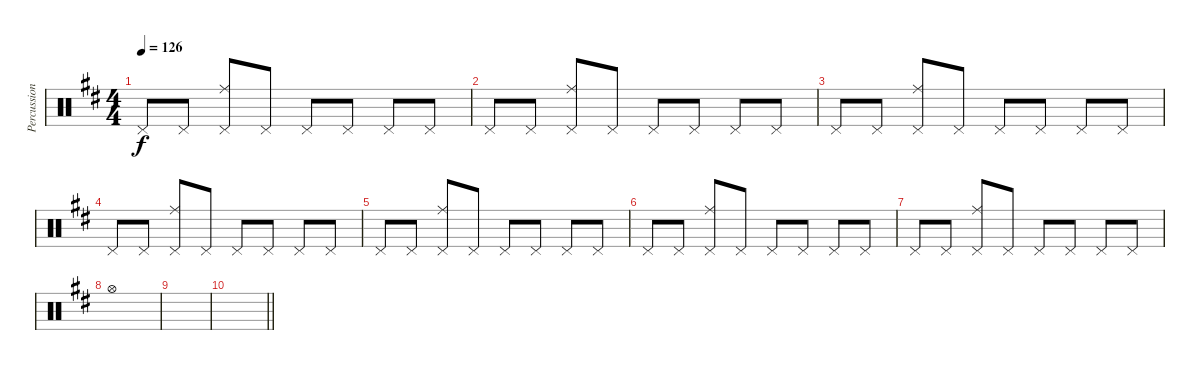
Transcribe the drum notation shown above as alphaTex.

\track ("Percussion" "Percussion") {instrument percussion}
\staff {score}
\articulation defaults
\ts (4 4)
\tempo 126
\clef neutral
\ks d "Pedal Hi-Hat (hit)".8{dy f} "Pedal Hi-Hat (hit)".8
("Pedal Hi-Hat (hit)" "Ride (middle)").8 "Pedal Hi-Hat (hit)".8 "Pedal Hi-Hat (hit)".8 "Pedal Hi-Hat (hit)".8 "Pedal Hi-Hat (hit)".8 "Pedal Hi-Hat (hit)".8 |
"Pedal Hi-Hat (hit)".8 "Pedal Hi-Hat (hit)".8 ("Pedal Hi-Hat (hit)" "Ride (middle)").8 "Pedal Hi-Hat (hit)".8 "Pedal Hi-Hat (hit)".8 "Pedal Hi-Hat (hit)".8 "Pedal Hi-Hat (hit)".8 "Pedal Hi-Hat (hit)".8 |
"Pedal Hi-Hat (hit)".8 "Pedal Hi-Hat (hit)".8 ("Pedal Hi-Hat (hit)" "Ride (middle)").8 "Pedal Hi-Hat (hit)".8 "Pedal Hi-Hat (hit)".8 "Pedal Hi-Hat (hit)".8 "Pedal Hi-Hat (hit)".8 "Pedal Hi-Hat (hit)".8 |
"Pedal Hi-Hat (hit)".8 "Pedal Hi-Hat (hit)".8 ("Pedal Hi-Hat (hit)" "Ride (middle)").8 "Pedal Hi-Hat (hit)".8 "Pedal Hi-Hat (hit)".8 "Pedal Hi-Hat (hit)".8 "Pedal Hi-Hat (hit)".8 "Pedal Hi-Hat (hit)".8 |
"Pedal Hi-Hat (hit)".8 "Pedal Hi-Hat (hit)".8 ("Pedal Hi-Hat (hit)" "Ride (middle)").8 "Pedal Hi-Hat (hit)".8 "Pedal Hi-Hat (hit)".8 "Pedal Hi-Hat (hit)".8 "Pedal Hi-Hat (hit)".8 "Pedal Hi-Hat (hit)".8 |
"Pedal Hi-Hat (hit)".8 "Pedal Hi-Hat (hit)".8 ("Pedal Hi-Hat (hit)" "Ride (middle)").8 "Pedal Hi-Hat (hit)".8 "Pedal Hi-Hat (hit)".8 "Pedal Hi-Hat (hit)".8 "Pedal Hi-Hat (hit)".8 "Pedal Hi-Hat (hit)".8 |
"Pedal Hi-Hat (hit)".8 "Pedal Hi-Hat (hit)".8 ("Pedal Hi-Hat (hit)" "Ride (middle)").8 "Pedal Hi-Hat (hit)".8 "Pedal Hi-Hat (hit)".8 "Pedal Hi-Hat (hit)".8 "Pedal Hi-Hat (hit)".8 "Pedal Hi-Hat (hit)".8 |
"Hi-Hat (open)".1 |
|
\barLineRight lightlight
